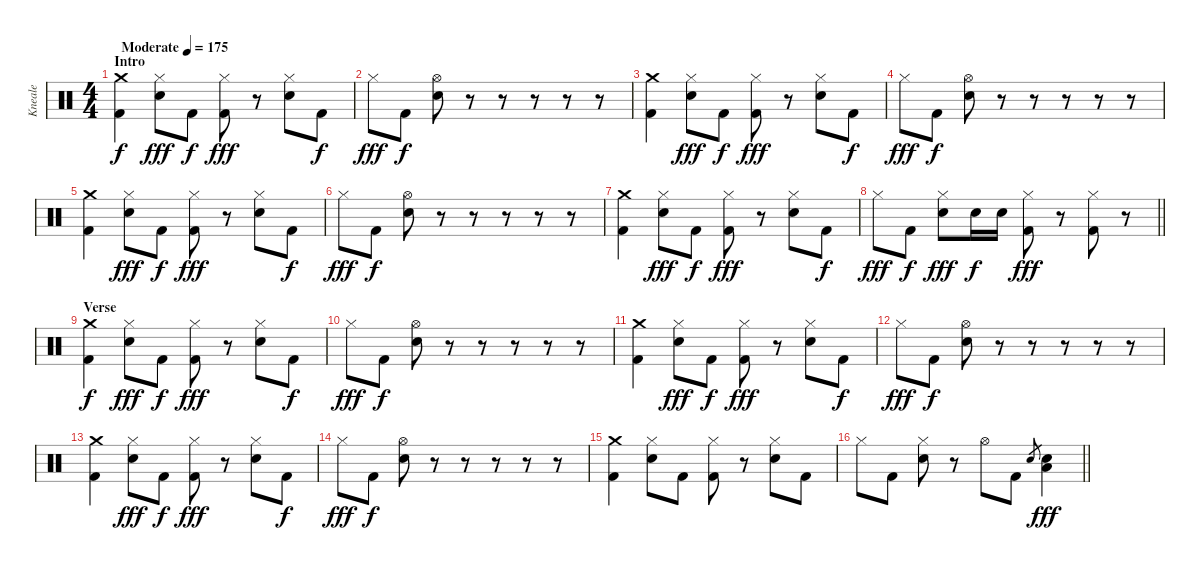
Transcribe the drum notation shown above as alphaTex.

\track ("Kneale" "Kneale") {instrument percussion}
\staff {score}
\articulation defaults
\ts (4 4)
\section ("" "Intro")
\tempo (175 "Moderate")
\clef neutral
\ks c
("Crash medium (hit)" "Kick (hit) 2").4{dy f} ("Hi-Hat (closed)" "Electric Snare (hit)").8{dy fff} "Kick (hit) 2".8{dy f} ("Hi-Hat (closed)" "Kick (hit) 2").8{dy fff} r.8 ("Hi-Hat (closed)" "Electric Snare (hit)").8 "Kick (hit) 2".8{dy f} |
"Hi-Hat (closed)".8{dy fff} "Kick (hit) 2".8{dy f} ("Hi-Hat (open)" "Electric Snare (hit)").8 r.8 r.8 r.8 r.8 r.8 |
("Crash medium (hit)" "Kick (hit) 2").4 ("Hi-Hat (closed)" "Electric Snare (hit)").8{dy fff} "Kick (hit) 2".8{dy f} ("Hi-Hat (closed)" "Kick (hit) 2").8{dy fff} r.8 ("Hi-Hat (closed)" "Electric Snare (hit)").8 "Kick (hit) 2".8{dy f} |
"Hi-Hat (closed)".8{dy fff} "Kick (hit) 2".8{dy f} ("Hi-Hat (open)" "Electric Snare (hit)").8 r.8 r.8 r.8 r.8 r.8 |
("Crash medium (hit)" "Kick (hit) 2").4 ("Hi-Hat (closed)" "Electric Snare (hit)").8{dy fff} "Kick (hit) 2".8{dy f} ("Hi-Hat (closed)" "Kick (hit) 2").8{dy fff} r.8 ("Hi-Hat (closed)" "Electric Snare (hit)").8 "Kick (hit) 2".8{dy f} |
"Hi-Hat (closed)".8{dy fff} "Kick (hit) 2".8{dy f} ("Hi-Hat (open)" "Electric Snare (hit)").8 r.8 r.8 r.8 r.8 r.8 |
("Crash medium (hit)" "Kick (hit) 2").4 ("Hi-Hat (closed)" "Electric Snare (hit)").8{dy fff} "Kick (hit) 2".8{dy f} ("Hi-Hat (closed)" "Kick (hit) 2").8{dy fff} r.8 ("Hi-Hat (closed)" "Electric Snare (hit)").8 "Kick (hit) 2".8{dy f} |
\barLineRight lightlight "Hi-Hat (closed)".8{dy fff} "Kick (hit) 2".8{dy f}
("Hi-Hat (closed)" "Electric Snare (hit)").8{dy fff} "Electric Snare (hit)".16{dy f} "Electric Snare (hit)".16 ("Hi-Hat (closed)" "Kick (hit) 2").8{dy fff} r.8 ("Hi-Hat (closed)" "Kick (hit) 2").8 r.8 |
\section ("" "Verse")
("Crash medium (hit)" "Kick (hit) 2").4{dy f} ("Hi-Hat (closed)" "Electric Snare (hit)").8{dy fff} "Kick (hit) 2".8{dy f} ("Hi-Hat (closed)" "Kick (hit) 2").8{dy fff} r.8 ("Hi-Hat (closed)" "Electric Snare (hit)").8 "Kick (hit) 2".8{dy f} |
"Hi-Hat (closed)".8{dy fff} "Kick (hit) 2".8{dy f} ("Hi-Hat (open)" "Electric Snare (hit)").8 r.8 r.8 r.8 r.8 r.8 |
("Crash medium (hit)" "Kick (hit) 2").4 ("Hi-Hat (closed)" "Electric Snare (hit)").8{dy fff} "Kick (hit) 2".8{dy f} ("Hi-Hat (closed)" "Kick (hit) 2").8{dy fff} r.8 ("Hi-Hat (closed)" "Electric Snare (hit)").8 "Kick (hit) 2".8{dy f} |
"Hi-Hat (closed)".8{dy fff} "Kick (hit) 2".8{dy f} ("Hi-Hat (open)" "Electric Snare (hit)").8 r.8 r.8 r.8 r.8 r.8 |
("Crash medium (hit)" "Kick (hit) 2").4 ("Hi-Hat (closed)" "Electric Snare (hit)").8{dy fff} "Kick (hit) 2".8{dy f} ("Hi-Hat (closed)" "Kick (hit) 2").8{dy fff} r.8 ("Hi-Hat (closed)" "Electric Snare (hit)").8 "Kick (hit) 2".8{dy f} |
"Hi-Hat (closed)".8{dy fff} "Kick (hit) 2".8{dy f} ("Hi-Hat (open)" "Electric Snare (hit)").8 r.8 r.8 r.8 r.8 r.8 |
("Crash medium (hit)" "Kick (hit) 2").4 ("Hi-Hat (closed)" "Electric Snare (hit)").8 "Kick (hit) 2".8 ("Hi-Hat (closed)" "Kick (hit) 2").8 r.8 ("Hi-Hat (closed)" "Electric Snare (hit)").8 "Kick (hit) 2".8 |
\barLineRight lightlight "Hi-Hat (closed)".8 "Kick (hit) 2".8
("Hi-Hat (closed)" "Electric Snare (hit)").8 r.8 "Hi-Hat (open)".8 "Kick (hit) 2".8 "Electric Snare (hit)".8{gr} ("Low Floor Tom (hit)" "Electric Snare (hit)").4{dy fff}
